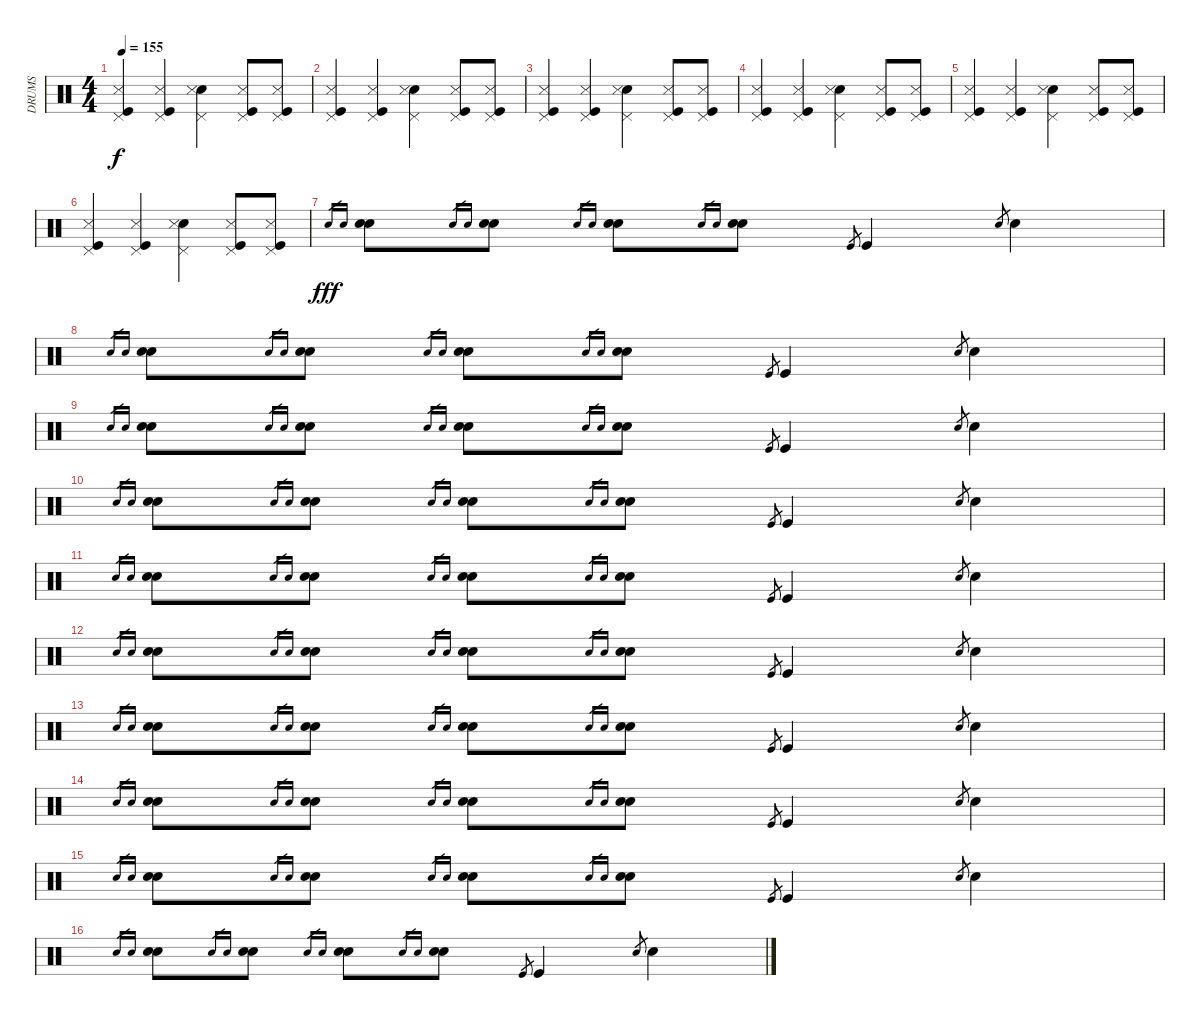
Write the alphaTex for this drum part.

\track ("DRUMS" "DRUMS") {instrument percussion}
\staff {score}
\articulation defaults
\ts (4 4)
\tempo 155
\clef neutral
\ks c
("Kick (hit)" "Snare (side stick) 3" "Pedal Hi-Hat (hit)").4{dy f} ("Kick (hit)" "Snare (side stick) 3" "Pedal Hi-Hat (hit)").4 ("Snare (hit) 2" "Snare (side stick) 3" "Pedal Hi-Hat (hit)").4 ("Kick (hit)" "Snare (side stick) 3" "Pedal Hi-Hat (hit)").8 ("Kick (hit)" "Snare (side stick) 3" "Pedal Hi-Hat (hit)").8 |
("Kick (hit)" "Snare (side stick) 3" "Pedal Hi-Hat (hit)").4 ("Kick (hit)" "Snare (side stick) 3" "Pedal Hi-Hat (hit)").4 ("Snare (hit) 2" "Snare (side stick) 3" "Pedal Hi-Hat (hit)").4 ("Kick (hit)" "Snare (side stick) 3" "Pedal Hi-Hat (hit)").8 ("Kick (hit)" "Snare (side stick) 3" "Pedal Hi-Hat (hit)").8 |
("Kick (hit)" "Snare (side stick) 3" "Pedal Hi-Hat (hit)").4 ("Kick (hit)" "Snare (side stick) 3" "Pedal Hi-Hat (hit)").4 ("Snare (hit) 2" "Snare (side stick) 3" "Pedal Hi-Hat (hit)").4 ("Kick (hit)" "Snare (side stick) 3" "Pedal Hi-Hat (hit)").8 ("Kick (hit)" "Snare (side stick) 3" "Pedal Hi-Hat (hit)").8 |
("Kick (hit)" "Snare (side stick) 3" "Pedal Hi-Hat (hit)").4 ("Kick (hit)" "Snare (side stick) 3" "Pedal Hi-Hat (hit)").4 ("Snare (hit) 2" "Snare (side stick) 3" "Pedal Hi-Hat (hit)").4 ("Kick (hit)" "Snare (side stick) 3" "Pedal Hi-Hat (hit)").8 ("Kick (hit)" "Snare (side stick) 3" "Pedal Hi-Hat (hit)").8 |
("Kick (hit)" "Snare (side stick) 3" "Pedal Hi-Hat (hit)").4 ("Kick (hit)" "Snare (side stick) 3" "Pedal Hi-Hat (hit)").4 ("Snare (hit) 2" "Snare (side stick) 3" "Pedal Hi-Hat (hit)").4 ("Kick (hit)" "Snare (side stick) 3" "Pedal Hi-Hat (hit)").8 ("Kick (hit)" "Snare (side stick) 3" "Pedal Hi-Hat (hit)").8 |
("Kick (hit)" "Snare (side stick) 3" "Pedal Hi-Hat (hit)").4{balance 2} ("Kick (hit)" "Snare (side stick) 3" "Pedal Hi-Hat (hit)").4 ("Snare (hit) 2" "Snare (side stick) 3" "Pedal Hi-Hat (hit)").4 ("Kick (hit)" "Snare (side stick) 3" "Pedal Hi-Hat (hit)").8 ("Kick (hit)" "Snare (side stick) 3" "Pedal Hi-Hat (hit)").8 |
"Snare (hit) 2".16{gr dy fff} "Snare (hit) 2".16{gr} ("Snare (hit) 2" "Snare (hit) 2").8{balance 4} "Snare (hit) 2".16{gr} "Snare (hit) 2".16{gr} ("Snare (hit) 2" "Snare (hit) 2").8 "Snare (hit) 2".16{gr} "Snare (hit) 2".16{gr} ("Snare (hit) 2" "Snare (hit) 2").8 "Snare (hit) 2".16{gr} "Snare (hit) 2".16{gr} ("Snare (hit) 2" "Snare (hit) 2").8 "Kick (hit)".8{gr} "Kick (hit)".4 "Snare (hit) 2".8{gr} "Snare (hit) 2".4 |
"Snare (hit) 2".16{gr} "Snare (hit) 2".16{gr} ("Snare (hit) 2" "Snare (hit) 2").8 "Snare (hit) 2".16{gr} "Snare (hit) 2".16{gr} ("Snare (hit) 2" "Snare (hit) 2").8 "Snare (hit) 2".16{gr} "Snare (hit) 2".16{gr} ("Snare (hit) 2" "Snare (hit) 2").8 "Snare (hit) 2".16{gr} "Snare (hit) 2".16{gr} ("Snare (hit) 2" "Snare (hit) 2").8 "Kick (hit)".8{gr} "Kick (hit)".4 "Snare (hit) 2".8{gr} "Snare (hit) 2".4 |
"Snare (hit) 2".16{gr} "Snare (hit) 2".16{gr} ("Snare (hit) 2" "Snare (hit) 2").8{balance 5} "Snare (hit) 2".16{gr} "Snare (hit) 2".16{gr} ("Snare (hit) 2" "Snare (hit) 2").8 "Snare (hit) 2".16{gr} "Snare (hit) 2".16{gr} ("Snare (hit) 2" "Snare (hit) 2").8 "Snare (hit) 2".16{gr} "Snare (hit) 2".16{gr} ("Snare (hit) 2" "Snare (hit) 2").8 "Kick (hit)".8{gr} "Kick (hit)".4 "Snare (hit) 2".8{gr} "Snare (hit) 2".4 |
"Snare (hit) 2".16{gr} "Snare (hit) 2".16{gr} ("Snare (hit) 2" "Snare (hit) 2").8 "Snare (hit) 2".16{gr} "Snare (hit) 2".16{gr} ("Snare (hit) 2" "Snare (hit) 2").8 "Snare (hit) 2".16{gr} "Snare (hit) 2".16{gr} ("Snare (hit) 2" "Snare (hit) 2").8 "Snare (hit) 2".16{gr} "Snare (hit) 2".16{gr} ("Snare (hit) 2" "Snare (hit) 2").8 "Kick (hit)".8{gr} "Kick (hit)".4 "Snare (hit) 2".8{gr} "Snare (hit) 2".4 |
"Snare (hit) 2".16{gr} "Snare (hit) 2".16{gr} ("Snare (hit) 2" "Snare (hit) 2").8 "Snare (hit) 2".16{gr} "Snare (hit) 2".16{gr} ("Snare (hit) 2" "Snare (hit) 2").8 "Snare (hit) 2".16{gr} "Snare (hit) 2".16{gr} ("Snare (hit) 2" "Snare (hit) 2").8 "Snare (hit) 2".16{gr} "Snare (hit) 2".16{gr} ("Snare (hit) 2" "Snare (hit) 2").8 "Kick (hit)".8{gr} "Kick (hit)".4 "Snare (hit) 2".8{gr} "Snare (hit) 2".4 |
"Snare (hit) 2".16{gr} "Snare (hit) 2".16{gr} ("Snare (hit) 2" "Snare (hit) 2").8 "Snare (hit) 2".16{gr} "Snare (hit) 2".16{gr} ("Snare (hit) 2" "Snare (hit) 2").8 "Snare (hit) 2".16{gr} "Snare (hit) 2".16{gr} ("Snare (hit) 2" "Snare (hit) 2").8 "Snare (hit) 2".16{gr} "Snare (hit) 2".16{gr} ("Snare (hit) 2" "Snare (hit) 2").8 "Kick (hit)".8{gr} "Kick (hit)".4 "Snare (hit) 2".8{gr} "Snare (hit) 2".4 |
"Snare (hit) 2".16{gr} "Snare (hit) 2".16{gr} ("Snare (hit) 2" "Snare (hit) 2").8{balance 8} "Snare (hit) 2".16{gr} "Snare (hit) 2".16{gr} ("Snare (hit) 2" "Snare (hit) 2").8 "Snare (hit) 2".16{gr} "Snare (hit) 2".16{gr} ("Snare (hit) 2" "Snare (hit) 2").8 "Snare (hit) 2".16{gr} "Snare (hit) 2".16{gr} ("Snare (hit) 2" "Snare (hit) 2").8 "Kick (hit)".8{gr} "Kick (hit)".4 "Snare (hit) 2".8{gr} "Snare (hit) 2".4 |
"Snare (hit) 2".16{gr} "Snare (hit) 2".16{gr} ("Snare (hit) 2" "Snare (hit) 2").8 "Snare (hit) 2".16{gr} "Snare (hit) 2".16{gr} ("Snare (hit) 2" "Snare (hit) 2").8 "Snare (hit) 2".16{gr} "Snare (hit) 2".16{gr} ("Snare (hit) 2" "Snare (hit) 2").8 "Snare (hit) 2".16{gr} "Snare (hit) 2".16{gr} ("Snare (hit) 2" "Snare (hit) 2").8 "Kick (hit)".8{gr} "Kick (hit)".4 "Snare (hit) 2".8{gr} "Snare (hit) 2".4 |
"Snare (hit) 2".16{gr} "Snare (hit) 2".16{gr} ("Snare (hit) 2" "Snare (hit) 2").8{volume 16} "Snare (hit) 2".16{gr} "Snare (hit) 2".16{gr} ("Snare (hit) 2" "Snare (hit) 2").8 "Snare (hit) 2".16{gr} "Snare (hit) 2".16{gr} ("Snare (hit) 2" "Snare (hit) 2").8 "Snare (hit) 2".16{gr} "Snare (hit) 2".16{gr} ("Snare (hit) 2" "Snare (hit) 2").8 "Kick (hit)".8{gr} "Kick (hit)".4 "Snare (hit) 2".8{gr} "Snare (hit) 2".4 |
"Snare (hit) 2".16{gr} "Snare (hit) 2".16{gr} ("Snare (hit) 2" "Snare (hit) 2").8 "Snare (hit) 2".16{gr} "Snare (hit) 2".16{gr} ("Snare (hit) 2" "Snare (hit) 2").8 "Snare (hit) 2".16{gr} "Snare (hit) 2".16{gr} ("Snare (hit) 2" "Snare (hit) 2").8 "Snare (hit) 2".16{gr} "Snare (hit) 2".16{gr} ("Snare (hit) 2" "Snare (hit) 2").8 "Kick (hit)".8{gr} "Kick (hit)".4 "Snare (hit) 2".8{gr} "Snare (hit) 2".4
